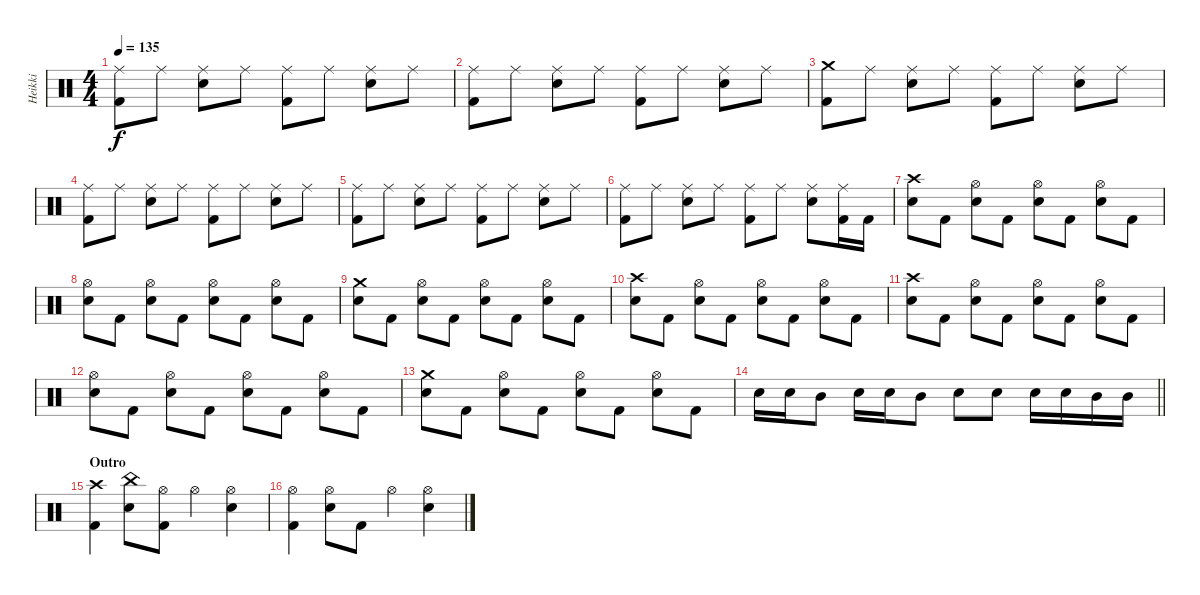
\track ("Heikki" "Heikki") {instrument percussion}
\staff {score}
\articulation defaults
\ts (4 4)
\tempo 135
\clef neutral
\ks c
("Ride (middle)" "Kick (hit) 2").8{dy f} "Ride (middle)".8 ("Ride (middle)" "Electric Snare (hit)").8 "Ride (middle)".8 ("Ride (middle)" "Kick (hit) 2").8 "Ride (middle)".8 ("Ride (middle)" "Electric Snare (hit)").8 "Ride (middle)".8 |
("Ride (middle)" "Kick (hit) 2").8 "Ride (middle)".8 ("Ride (middle)" "Electric Snare (hit)").8 "Ride (middle)".8 ("Ride (middle)" "Kick (hit) 2").8 "Ride (middle)".8 ("Ride (middle)" "Electric Snare (hit)").8 "Ride (middle)".8 |
("Crash medium (hit)" "Kick (hit) 2").8 "Ride (middle)".8 ("Ride (middle)" "Electric Snare (hit)").8 "Ride (middle)".8 ("Ride (middle)" "Kick (hit) 2").8 "Ride (middle)".8 ("Ride (middle)" "Electric Snare (hit)").8 "Ride (middle)".8 |
("Ride (middle)" "Kick (hit) 2").8 "Ride (middle)".8 ("Ride (middle)" "Electric Snare (hit)").8 "Ride (middle)".8 ("Ride (middle)" "Kick (hit) 2").8 "Ride (middle)".8 ("Ride (middle)" "Electric Snare (hit)").8 "Ride (middle)".8 |
("Ride (middle)" "Kick (hit) 2").8 "Ride (middle)".8 ("Ride (middle)" "Electric Snare (hit)").8 "Ride (middle)".8 ("Ride (middle)" "Kick (hit) 2").8 "Ride (middle)".8 ("Ride (middle)" "Electric Snare (hit)").8 "Ride (middle)".8 |
("Ride (middle)" "Kick (hit) 2").8 "Ride (middle)".8 ("Ride (middle)" "Electric Snare (hit)").8 "Ride (middle)".8 ("Ride (middle)" "Kick (hit) 2").8 "Ride (middle)".8 ("Ride (middle)" "Electric Snare (hit)").8 ("Ride (middle)" "Kick (hit) 2").16 "Kick (hit) 2".16 |
("Crash high (hit)" "Electric Snare (hit)").8 "Kick (hit) 2".8 ("Hi-Hat (open)" "Electric Snare (hit)").8 "Kick (hit) 2".8 ("Hi-Hat (open)" "Electric Snare (hit)").8 "Kick (hit) 2".8 ("Hi-Hat (open)" "Electric Snare (hit)").8 "Kick (hit) 2".8 |
("Hi-Hat (open)" "Electric Snare (hit)").8 "Kick (hit) 2".8 ("Hi-Hat (open)" "Electric Snare (hit)").8 "Kick (hit) 2".8 ("Hi-Hat (open)" "Electric Snare (hit)").8 "Kick (hit) 2".8 ("Hi-Hat (open)" "Electric Snare (hit)").8 "Kick (hit) 2".8 |
("Crash medium (hit)" "Electric Snare (hit)").8 "Kick (hit) 2".8 ("Hi-Hat (open)" "Electric Snare (hit)").8 "Kick (hit) 2".8 ("Hi-Hat (open)" "Electric Snare (hit)").8 "Kick (hit) 2".8 ("Hi-Hat (open)" "Electric Snare (hit)").8 "Kick (hit) 2".8 |
("Crash high (hit)" "Electric Snare (hit)").8 "Kick (hit) 2".8 ("Hi-Hat (open)" "Electric Snare (hit)").8 "Kick (hit) 2".8 ("Hi-Hat (open)" "Electric Snare (hit)").8 "Kick (hit) 2".8 ("Hi-Hat (open)" "Electric Snare (hit)").8 "Kick (hit) 2".8 |
("Crash high (hit)" "Electric Snare (hit)").8 "Kick (hit) 2".8 ("Hi-Hat (open)" "Electric Snare (hit)").8 "Kick (hit) 2".8 ("Hi-Hat (open)" "Electric Snare (hit)").8 "Kick (hit) 2".8 ("Hi-Hat (open)" "Electric Snare (hit)").8 "Kick (hit) 2".8 |
("Hi-Hat (open)" "Electric Snare (hit)").8 "Kick (hit) 2".8 ("Hi-Hat (open)" "Electric Snare (hit)").8 "Kick (hit) 2".8 ("Hi-Hat (open)" "Electric Snare (hit)").8 "Kick (hit) 2".8 ("Hi-Hat (open)" "Electric Snare (hit)").8 "Kick (hit) 2".8 |
("Crash medium (hit)" "Electric Snare (hit)").8 "Kick (hit) 2".8 ("Hi-Hat (open)" "Electric Snare (hit)").8 "Kick (hit) 2".8 ("Hi-Hat (open)" "Electric Snare (hit)").8 "Kick (hit) 2".8 ("Hi-Hat (open)" "Electric Snare (hit)").8 "Kick (hit) 2".8 |
\barLineRight lightlight "Electric Snare (hit)".16 "Electric Snare (hit)".16 "Mid Tom (hit)".8 "Electric Snare (hit)".16 "Electric Snare (hit)".16 "Mid Tom (hit)".8 "Electric Snare (hit)".8 "Electric Snare (hit)".8 "Electric Snare (hit)".16 "Electric Snare (hit)".16 "Mid Tom (hit)".16 "Mid Tom (hit)".16
|
\section ("" "Outro")
("Crash high (hit)" "Kick (hit) 2").4 ("China (hit)" "Electric Snare (hit)").8 ("Hi-Hat (open)" "Kick (hit) 2").8 "Hi-Hat (open)".4 ("Hi-Hat (open)" "Electric Snare (hit)").4 |
("Hi-Hat (open)" "Kick (hit) 2").4 ("Hi-Hat (open)" "Electric Snare (hit)").8 "Kick (hit) 2".8 "Hi-Hat (open)".4 ("Hi-Hat (open)" "Electric Snare (hit)").4
